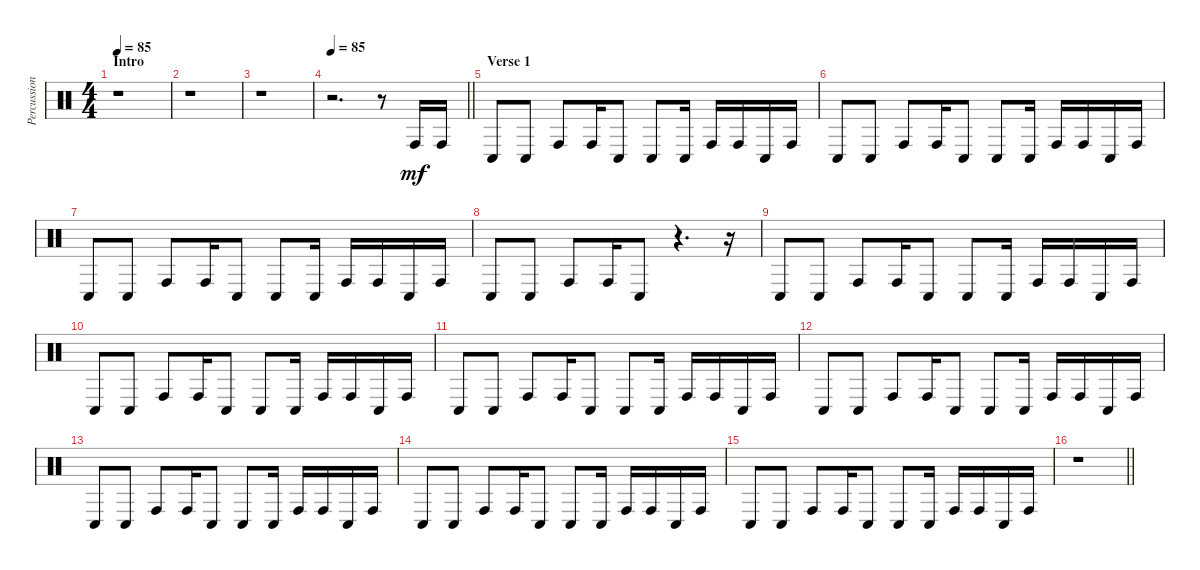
\track ("Percussions" "Percussion") {instrument percussion}
\staff {score}
\articulation defaults
\ts (4 4)
\section ("" "Intro")
\tempo 85
\tempo 75
\tempo 85
\clef neutral
\ks c
r.1{dy mf} |
r.1 |
r.1 |
\tempo 85
\barLineRight lightlight
r.2{d} r.8 "Conga high (hit)".16 "Conga high (hit)".16 |
\section ("" "Verse 1")
"Conga low (hit)".8 "Conga low (hit)".8 "Conga high (hit)".8 "Conga high (hit)".16 "Conga low (hit)".8 "Conga low (hit)".8 "Conga low (hit)".16 "Conga high (hit)".16 "Conga high (hit)".16 "Conga low (hit)".16 "Conga high (hit)".16 |
"Conga low (hit)".8 "Conga low (hit)".8 "Conga high (hit)".8 "Conga high (hit)".16 "Conga low (hit)".8 "Conga low (hit)".8 "Conga low (hit)".16 "Conga high (hit)".16 "Conga high (hit)".16 "Conga low (hit)".16 "Conga high (hit)".16 |
"Conga low (hit)".8 "Conga low (hit)".8 "Conga high (hit)".8 "Conga high (hit)".16 "Conga low (hit)".8 "Conga low (hit)".8 "Conga low (hit)".16 "Conga high (hit)".16 "Conga high (hit)".16 "Conga low (hit)".16 "Conga high (hit)".16 |
"Conga low (hit)".8 "Conga low (hit)".8 "Conga high (hit)".8 "Conga high (hit)".16 "Conga low (hit)".8 r.4{d} r.16 |
"Conga low (hit)".8 "Conga low (hit)".8 "Conga high (hit)".8 "Conga high (hit)".16 "Conga low (hit)".8 "Conga low (hit)".8 "Conga low (hit)".16 "Conga high (hit)".16 "Conga high (hit)".16 "Conga low (hit)".16 "Conga high (hit)".16 |
"Conga low (hit)".8 "Conga low (hit)".8 "Conga high (hit)".8 "Conga high (hit)".16 "Conga low (hit)".8 "Conga low (hit)".8 "Conga low (hit)".16 "Conga high (hit)".16 "Conga high (hit)".16 "Conga low (hit)".16 "Conga high (hit)".16 |
"Conga low (hit)".8 "Conga low (hit)".8 "Conga high (hit)".8 "Conga high (hit)".16 "Conga low (hit)".8 "Conga low (hit)".8 "Conga low (hit)".16 "Conga high (hit)".16 "Conga high (hit)".16 "Conga low (hit)".16 "Conga high (hit)".16 |
"Conga low (hit)".8 "Conga low (hit)".8 "Conga high (hit)".8 "Conga high (hit)".16 "Conga low (hit)".8 "Conga low (hit)".8 "Conga low (hit)".16 "Conga high (hit)".16 "Conga high (hit)".16 "Conga low (hit)".16 "Conga high (hit)".16 |
"Conga low (hit)".8 "Conga low (hit)".8 "Conga high (hit)".8 "Conga high (hit)".16 "Conga low (hit)".8 "Conga low (hit)".8 "Conga low (hit)".16 "Conga high (hit)".16 "Conga high (hit)".16 "Conga low (hit)".16 "Conga high (hit)".16 |
"Conga low (hit)".8 "Conga low (hit)".8 "Conga high (hit)".8 "Conga high (hit)".16 "Conga low (hit)".8 "Conga low (hit)".8 "Conga low (hit)".16 "Conga high (hit)".16 "Conga high (hit)".16 "Conga low (hit)".16 "Conga high (hit)".16 |
"Conga low (hit)".8 "Conga low (hit)".8 "Conga high (hit)".8 "Conga high (hit)".16 "Conga low (hit)".8 "Conga low (hit)".8 "Conga low (hit)".16 "Conga high (hit)".16 "Conga high (hit)".16 "Conga low (hit)".16 "Conga high (hit)".16 |
\barLineRight lightlight
r.1
